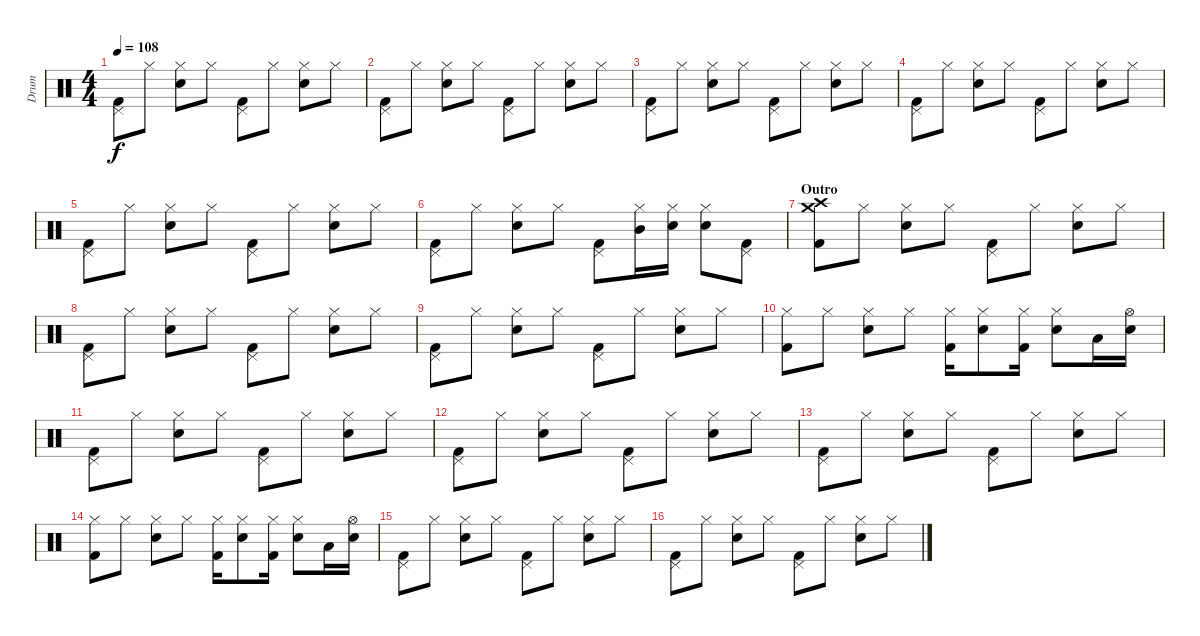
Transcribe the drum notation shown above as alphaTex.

\track ("Drum" "Drum") {instrument percussion}
\staff {score}
\articulation defaults
\ts (4 4)
\tempo 108
\clef neutral
\ks c
("Pedal Hi-Hat (hit)" "Kick (hit) 2").8{dy f} "Hi-Hat (closed)".8 ("Hi-Hat (closed)" "Electric Snare (hit)").8 "Hi-Hat (closed)".8 ("Pedal Hi-Hat (hit)" "Kick (hit) 2").8 "Hi-Hat (closed)".8 ("Hi-Hat (closed)" "Electric Snare (hit)").8 "Hi-Hat (closed)".8 |
("Pedal Hi-Hat (hit)" "Kick (hit) 2").8 "Hi-Hat (closed)".8 ("Hi-Hat (closed)" "Electric Snare (hit)").8 "Hi-Hat (closed)".8 ("Pedal Hi-Hat (hit)" "Kick (hit) 2").8 "Hi-Hat (closed)".8 ("Hi-Hat (closed)" "Electric Snare (hit)").8 "Hi-Hat (closed)".8 |
("Pedal Hi-Hat (hit)" "Kick (hit) 2").8 "Hi-Hat (closed)".8 ("Hi-Hat (closed)" "Electric Snare (hit)").8 "Hi-Hat (closed)".8 ("Pedal Hi-Hat (hit)" "Kick (hit) 2").8 "Hi-Hat (closed)".8 ("Hi-Hat (closed)" "Electric Snare (hit)").8 "Hi-Hat (closed)".8 |
("Pedal Hi-Hat (hit)" "Kick (hit) 2").8 "Hi-Hat (closed)".8 ("Hi-Hat (closed)" "Electric Snare (hit)").8 "Hi-Hat (closed)".8 ("Pedal Hi-Hat (hit)" "Kick (hit) 2").8 "Hi-Hat (closed)".8 ("Hi-Hat (closed)" "Electric Snare (hit)").8 "Hi-Hat (closed)".8 |
("Pedal Hi-Hat (hit)" "Kick (hit) 2").8 "Hi-Hat (closed)".8 ("Hi-Hat (closed)" "Electric Snare (hit)").8 "Hi-Hat (closed)".8 ("Pedal Hi-Hat (hit)" "Kick (hit) 2").8 "Hi-Hat (closed)".8 ("Hi-Hat (closed)" "Electric Snare (hit)").8 "Hi-Hat (closed)".8 |
("Pedal Hi-Hat (hit)" "Kick (hit) 2").8 "Hi-Hat (closed)".8 ("Hi-Hat (closed)" "Electric Snare (hit)").8 "Hi-Hat (closed)".8 ("Pedal Hi-Hat (hit)" "Kick (hit) 2").8 ("Hi-Hat (closed)" "Mid Tom (hit)").16 ("Hi-Hat (closed)" "Electric Snare (hit)").16 ("Hi-Hat (closed)" "Electric Snare (hit)").8 ("Pedal Hi-Hat (hit)" "Kick (hit) 2").8 |
\section ("" "Outro")
("Kick (hit) 2" "Crash high (hit)" "Crash medium (hit)").8 "Hi-Hat (closed)".8 ("Hi-Hat (closed)" "Electric Snare (hit)").8 "Hi-Hat (closed)".8 ("Pedal Hi-Hat (hit)" "Kick (hit) 2").8 "Hi-Hat (closed)".8 ("Hi-Hat (closed)" "Electric Snare (hit)").8 "Hi-Hat (closed)".8 |
("Pedal Hi-Hat (hit)" "Kick (hit) 2").8 "Hi-Hat (closed)".8 ("Hi-Hat (closed)" "Electric Snare (hit)").8 "Hi-Hat (closed)".8 ("Pedal Hi-Hat (hit)" "Kick (hit) 2").8 "Hi-Hat (closed)".8 ("Hi-Hat (closed)" "Electric Snare (hit)").8 "Hi-Hat (closed)".8 |
("Pedal Hi-Hat (hit)" "Kick (hit) 2").8 "Hi-Hat (closed)".8 ("Hi-Hat (closed)" "Electric Snare (hit)").8 "Hi-Hat (closed)".8 ("Pedal Hi-Hat (hit)" "Kick (hit) 2").8 "Hi-Hat (closed)".8 ("Hi-Hat (closed)" "Electric Snare (hit)").8 "Hi-Hat (closed)".8 |
("Hi-Hat (closed)" "Kick (hit) 2").8 "Hi-Hat (closed)".8 ("Hi-Hat (closed)" "Electric Snare (hit)").8 "Hi-Hat (closed)".8 ("Hi-Hat (closed)" "Kick (hit) 2").16 ("Hi-Hat (closed)" "Electric Snare (hit)").8 ("Hi-Hat (closed)" "Kick (hit) 2").16 ("Hi-Hat (closed)" "Electric Snare (hit)").8 "Low Tom (hit)".16 ("Hi-Hat (open)" "Electric Snare (hit)").16 |
("Pedal Hi-Hat (hit)" "Kick (hit) 2").8 "Hi-Hat (closed)".8 ("Hi-Hat (closed)" "Electric Snare (hit)").8 "Hi-Hat (closed)".8 ("Pedal Hi-Hat (hit)" "Kick (hit) 2").8 "Hi-Hat (closed)".8 ("Hi-Hat (closed)" "Electric Snare (hit)").8 "Hi-Hat (closed)".8 |
("Pedal Hi-Hat (hit)" "Kick (hit) 2").8 "Hi-Hat (closed)".8 ("Hi-Hat (closed)" "Electric Snare (hit)").8 "Hi-Hat (closed)".8 ("Pedal Hi-Hat (hit)" "Kick (hit) 2").8 "Hi-Hat (closed)".8 ("Hi-Hat (closed)" "Electric Snare (hit)").8 "Hi-Hat (closed)".8 |
("Pedal Hi-Hat (hit)" "Kick (hit) 2").8 "Hi-Hat (closed)".8 ("Hi-Hat (closed)" "Electric Snare (hit)").8 "Hi-Hat (closed)".8 ("Pedal Hi-Hat (hit)" "Kick (hit) 2").8 "Hi-Hat (closed)".8 ("Hi-Hat (closed)" "Electric Snare (hit)").8 "Hi-Hat (closed)".8 |
("Hi-Hat (closed)" "Kick (hit) 2").8 "Hi-Hat (closed)".8 ("Hi-Hat (closed)" "Electric Snare (hit)").8 "Hi-Hat (closed)".8 ("Hi-Hat (closed)" "Kick (hit) 2").16 ("Hi-Hat (closed)" "Electric Snare (hit)").8 ("Hi-Hat (closed)" "Kick (hit) 2").16 ("Hi-Hat (closed)" "Electric Snare (hit)").8 "Low Tom (hit)".16 ("Hi-Hat (open)" "Electric Snare (hit)").16 |
("Pedal Hi-Hat (hit)" "Kick (hit) 2").8 "Hi-Hat (closed)".8 ("Hi-Hat (closed)" "Electric Snare (hit)").8 "Hi-Hat (closed)".8 ("Pedal Hi-Hat (hit)" "Kick (hit) 2").8 "Hi-Hat (closed)".8 ("Hi-Hat (closed)" "Electric Snare (hit)").8 "Hi-Hat (closed)".8 |
("Pedal Hi-Hat (hit)" "Kick (hit) 2").8 "Hi-Hat (closed)".8 ("Hi-Hat (closed)" "Electric Snare (hit)").8 "Hi-Hat (closed)".8 ("Pedal Hi-Hat (hit)" "Kick (hit) 2").8 "Hi-Hat (closed)".8 ("Hi-Hat (closed)" "Electric Snare (hit)").8 "Hi-Hat (closed)".8
